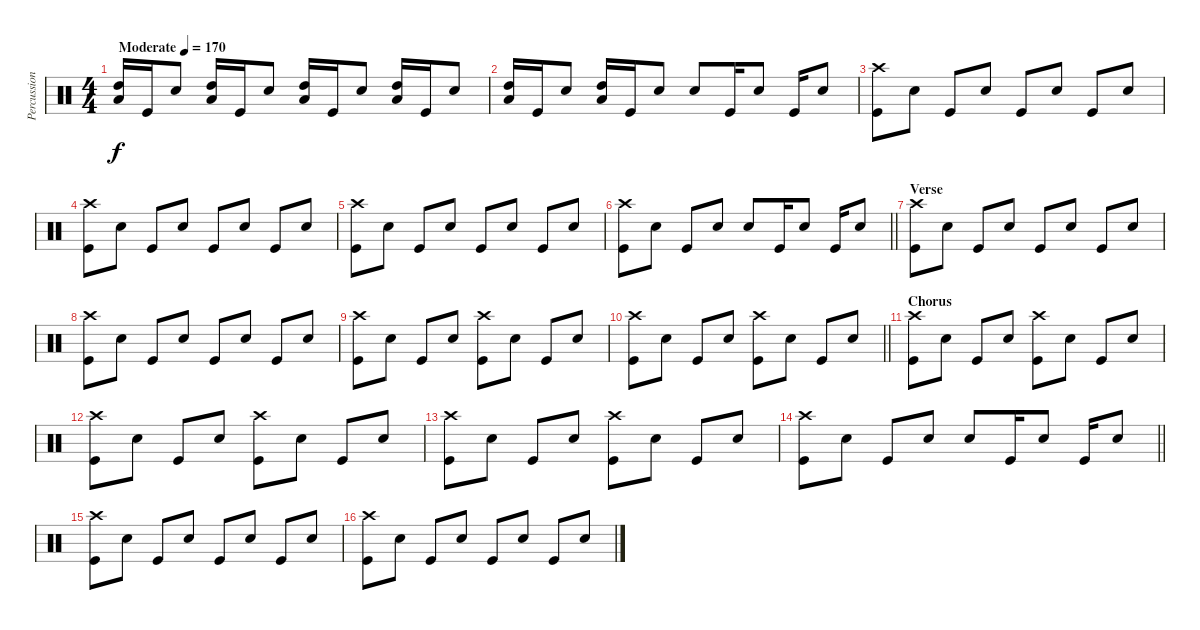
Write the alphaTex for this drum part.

\track ("Percussion" "Percussion") {instrument percussion}
\staff {score}
\articulation defaults
\ts (4 4)
\tempo (170 "Moderate")
\clef neutral
\ks c
("High Tom (hit)" "Low Tom (hit)").16{dy f} "Kick (hit)".16 "Snare (hit) 2".8 ("High Tom (hit)" "Low Tom (hit)").16 "Kick (hit)".16 "Snare (hit) 2".8 ("High Tom (hit)" "Low Tom (hit)").16 "Kick (hit)".16 "Snare (hit) 2".8 ("High Tom (hit)" "Low Tom (hit)").16 "Kick (hit)".16 "Snare (hit) 2".8 |
("High Tom (hit)" "Low Tom (hit)").16 "Kick (hit)".16 "Snare (hit) 2".8 ("High Tom (hit)" "Low Tom (hit)").16 "Kick (hit)".16 "Snare (hit) 2".8 "Snare (hit) 2".8 "Kick (hit)".16 "Snare (hit) 2".8 "Kick (hit)".16 "Snare (hit) 2".8 |
("Crash high (hit)" "Kick (hit)").8 "Snare (hit) 2".8 "Kick (hit)".8 "Snare (hit) 2".8 "Kick (hit)".8 "Snare (hit) 2".8 "Kick (hit)".8 "Snare (hit) 2".8 |
("Crash high (hit)" "Kick (hit)").8 "Snare (hit) 2".8 "Kick (hit)".8 "Snare (hit) 2".8 "Kick (hit)".8 "Snare (hit) 2".8 "Kick (hit)".8 "Snare (hit) 2".8 |
("Crash high (hit)" "Kick (hit)").8 "Snare (hit) 2".8 "Kick (hit)".8 "Snare (hit) 2".8 "Kick (hit)".8 "Snare (hit) 2".8 "Kick (hit)".8 "Snare (hit) 2".8 |
\barLineRight lightlight
("Crash high (hit)" "Kick (hit)").8 "Snare (hit) 2".8 "Kick (hit)".8 "Snare (hit) 2".8 "Snare (hit) 2".8 "Kick (hit)".16 "Snare (hit) 2".8 "Kick (hit)".16 "Snare (hit) 2".8 |
\section ("" "Verse")
("Crash high (hit)" "Kick (hit)").8 "Snare (hit) 2".8 "Kick (hit)".8 "Snare (hit) 2".8 "Kick (hit)".8 "Snare (hit) 2".8 "Kick (hit)".8 "Snare (hit) 2".8 |
("Crash high (hit)" "Kick (hit)").8 "Snare (hit) 2".8 "Kick (hit)".8 "Snare (hit) 2".8 "Kick (hit)".8 "Snare (hit) 2".8 "Kick (hit)".8 "Snare (hit) 2".8 |
("Crash high (hit)" "Kick (hit)").8 "Snare (hit) 2".8 "Kick (hit)".8 "Snare (hit) 2".8 ("Crash high (hit)" "Kick (hit)").8 "Snare (hit) 2".8 "Kick (hit)".8 "Snare (hit) 2".8 |
\barLineRight lightlight
("Crash high (hit)" "Kick (hit)").8 "Snare (hit) 2".8 "Kick (hit)".8 "Snare (hit) 2".8 ("Crash high (hit)" "Kick (hit)").8 "Snare (hit) 2".8 "Kick (hit)".8 "Snare (hit) 2".8 |
\section ("" "Chorus")
("Crash high (hit)" "Kick (hit)").8 "Snare (hit) 2".8 "Kick (hit)".8 "Snare (hit) 2".8 ("Crash high (hit)" "Kick (hit)").8 "Snare (hit) 2".8 "Kick (hit)".8 "Snare (hit) 2".8 |
("Crash high (hit)" "Kick (hit)").8 "Snare (hit) 2".8 "Kick (hit)".8 "Snare (hit) 2".8 ("Crash high (hit)" "Kick (hit)").8 "Snare (hit) 2".8 "Kick (hit)".8 "Snare (hit) 2".8 |
("Crash high (hit)" "Kick (hit)").8 "Snare (hit) 2".8 "Kick (hit)".8 "Snare (hit) 2".8 ("Crash high (hit)" "Kick (hit)").8 "Snare (hit) 2".8 "Kick (hit)".8 "Snare (hit) 2".8 |
\barLineRight lightlight
("Crash high (hit)" "Kick (hit)").8 "Snare (hit) 2".8 "Kick (hit)".8 "Snare (hit) 2".8 "Snare (hit) 2".8 "Kick (hit)".16 "Snare (hit) 2".8 "Kick (hit)".16 "Snare (hit) 2".8 |
("Crash high (hit)" "Kick (hit)").8 "Snare (hit) 2".8 "Kick (hit)".8 "Snare (hit) 2".8 "Kick (hit)".8 "Snare (hit) 2".8 "Kick (hit)".8 "Snare (hit) 2".8 |
("Crash high (hit)" "Kick (hit)").8 "Snare (hit) 2".8 "Kick (hit)".8 "Snare (hit) 2".8 "Kick (hit)".8 "Snare (hit) 2".8 "Kick (hit)".8 "Snare (hit) 2".8
